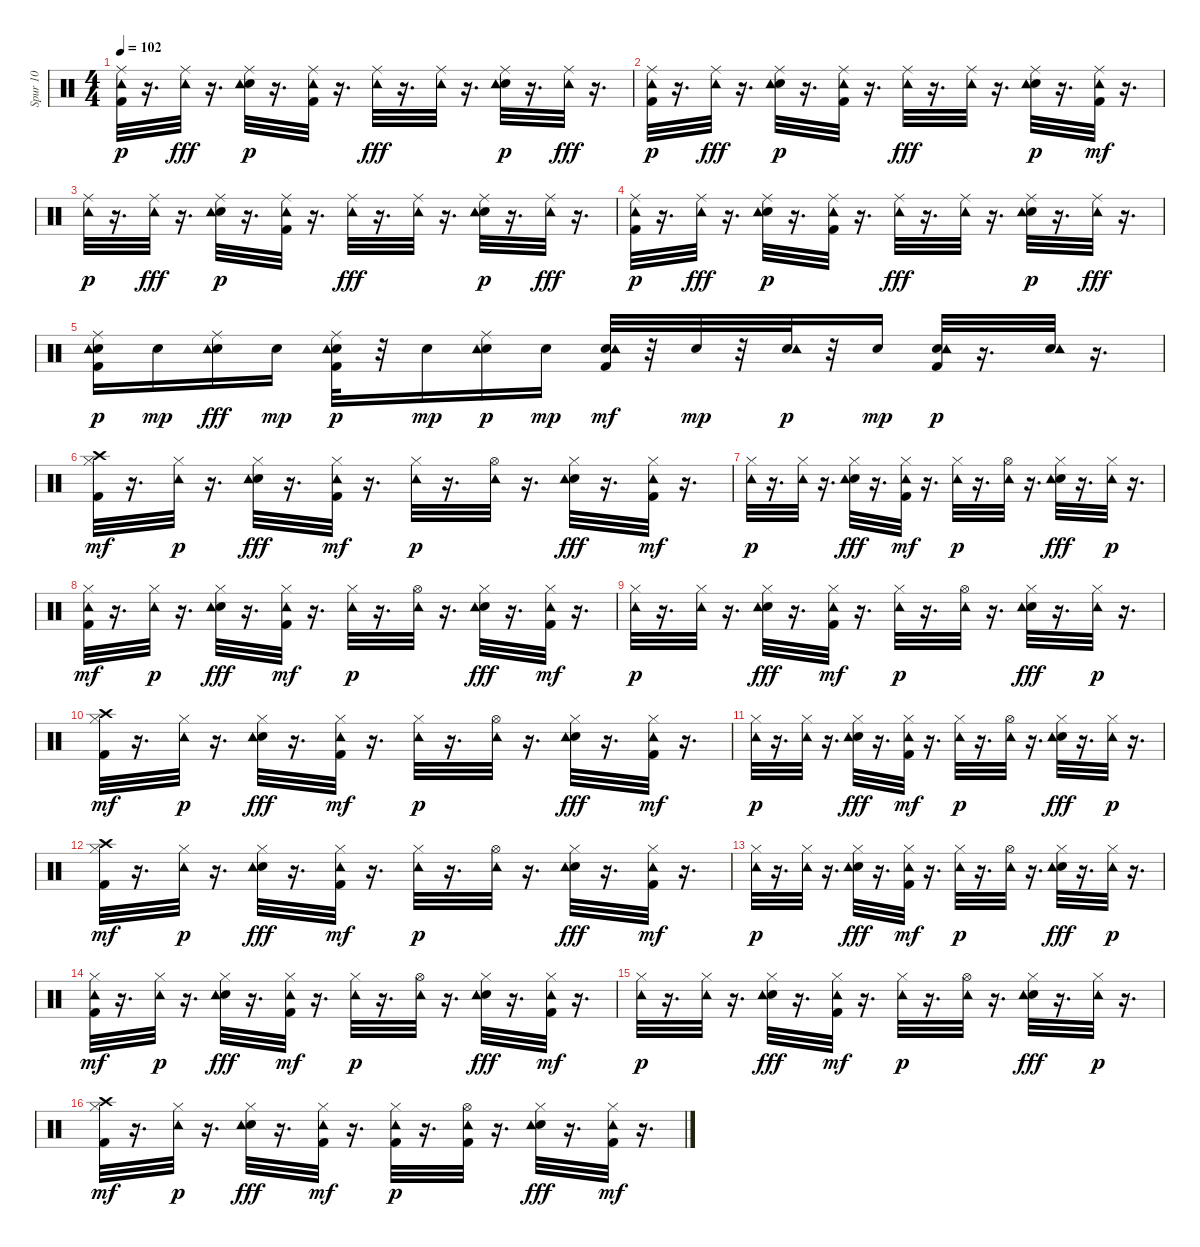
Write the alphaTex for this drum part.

\track ("Spur 10" "Spur 10") {instrument percussion}
\staff {score}
\articulation defaults
\ts (4 4)
\tempo 102
\clef neutral
\ks c
("Kick (hit) 2" "Ride (middle)" "Tambourine (hit)").32{dy p} r.16{d} ("Tambourine (hit)" "Ride (middle)").32{dy fff} r.16{d} ("Ride (middle)" "Electric Snare (hit)" "Tambourine (hit)").32{dy p} r.16{d} ("Kick (hit) 2" "Ride (middle)" "Tambourine (hit)").32 r.16{d} ("Tambourine (hit)" "Ride (middle)").32{dy fff} r.16{d} ("Tambourine (hit)" "Ride (middle)").32 r.16{d} ("Ride (middle)" "Electric Snare (hit)" "Tambourine (hit)").32{dy p} r.16{d} ("Tambourine (hit)" "Ride (middle)").32{dy fff} r.16{d} |
("Kick (hit) 2" "Ride (middle)" "Tambourine (hit)").32{dy p} r.16{d} ("Tambourine (hit)" "Ride (middle)").32{dy fff} r.16{d} ("Ride (middle)" "Electric Snare (hit)" "Tambourine (hit)").32{dy p} r.16{d} ("Kick (hit) 2" "Ride (middle)" "Tambourine (hit)").32 r.16{d} ("Tambourine (hit)" "Ride (middle)").32{dy fff} r.16{d} ("Tambourine (hit)" "Ride (middle)").32 r.16{d} ("Ride (middle)" "Electric Snare (hit)" "Tambourine (hit)").32{dy p} r.16{d} ("Tambourine (hit)" "Ride (middle)" "Kick (hit) 2").32{dy mf} r.16{d} |
("Ride (middle)" "Tambourine (hit)").32{dy p} r.16{d} ("Tambourine (hit)" "Ride (middle)").32{dy fff} r.16{d} ("Ride (middle)" "Electric Snare (hit)" "Tambourine (hit)").32{dy p} r.16{d} ("Kick (hit) 2" "Ride (middle)" "Tambourine (hit)").32 r.16{d} ("Tambourine (hit)" "Ride (middle)").32{dy fff} r.16{d} ("Tambourine (hit)" "Ride (middle)").32 r.16{d} ("Ride (middle)" "Electric Snare (hit)" "Tambourine (hit)").32{dy p} r.16{d} ("Tambourine (hit)" "Ride (middle)").32{dy fff} r.16{d} |
("Kick (hit) 2" "Ride (middle)" "Tambourine (hit)").32{dy p} r.16{d} ("Tambourine (hit)" "Ride (middle)").32{dy fff} r.16{d} ("Ride (middle)" "Electric Snare (hit)" "Tambourine (hit)").32{dy p} r.16{d} ("Kick (hit) 2" "Ride (middle)" "Tambourine (hit)").32 r.16{d} ("Tambourine (hit)" "Ride (middle)").32{dy fff} r.16{d} ("Tambourine (hit)" "Ride (middle)").32 r.16{d} ("Ride (middle)" "Electric Snare (hit)" "Tambourine (hit)").32{dy p} r.16{d} ("Tambourine (hit)" "Ride (middle)").32{dy fff} r.16{d} |
("Electric Snare (hit)" "Kick (hit) 2" "Ride (middle)" "Tambourine (hit)").16{dy p} "Electric Snare (hit)".16{dy mp} ("Electric Snare (hit)" "Tambourine (hit)" "Ride (middle)").16{dy fff} "Electric Snare (hit)".16{dy mp} ("Kick (hit) 2" "Ride (middle)" "Electric Snare (hit)" "Tambourine (hit)").32{dy p} r.32 "Electric Snare (hit)".16{dy mp} ("Electric Snare (hit)" "Ride (middle)" "Tambourine (hit)").16{dy p} "Electric Snare (hit)".16{dy mp} ("Electric Snare (hit)" "Tambourine (hit)" "Kick (hit) 2").32{dy mf} r.32 "Electric Snare (hit)".32{dy mp} r.32 ("Electric Snare (hit)" "Tambourine (hit)").32{dy p} r.32 "Electric Snare (hit)".16{dy mp} ("Electric Snare (hit)" "Kick (hit) 2" "Tambourine (hit)").32{dy p} r.16{d} ("Electric Snare (hit)" "Tambourine (hit)").32 r.16{d} |
("Hi-Hat (closed)" "Crash high (hit)" "Kick (hit) 2").32{dy mf} r.16{d} ("Hi-Hat (closed)" "Tambourine (hit)").32{dy p} r.16{d} ("Electric Snare (hit)" "Tambourine (hit)" "Hi-Hat (closed)").32{dy fff} r.16{d} ("Hi-Hat (closed)" "Tambourine (hit)" "Kick (hit) 2").32{dy mf} r.16{d} ("Hi-Hat (closed)" "Tambourine (hit)").32{dy p} r.16{d} ("Hi-Hat (open)" "Tambourine (hit)").32 r.16{d} ("Electric Snare (hit)" "Tambourine (hit)" "Hi-Hat (closed)").32{dy fff} r.16{d} ("Hi-Hat (closed)" "Tambourine (hit)" "Kick (hit) 2").32{dy mf} r.16{d} |
("Hi-Hat (closed)" "Tambourine (hit)").32{dy p} r.16{d} ("Hi-Hat (closed)" "Tambourine (hit)").32 r.16{d} ("Electric Snare (hit)" "Tambourine (hit)" "Hi-Hat (closed)").32{dy fff} r.16{d} ("Hi-Hat (closed)" "Tambourine (hit)" "Kick (hit) 2").32{dy mf} r.16{d} ("Hi-Hat (closed)" "Tambourine (hit)").32{dy p} r.16{d} ("Hi-Hat (open)" "Tambourine (hit)").32 r.16{d} ("Electric Snare (hit)" "Tambourine (hit)" "Hi-Hat (closed)").32{dy fff} r.16{d} ("Hi-Hat (closed)" "Tambourine (hit)").32{dy p} r.16{d} |
("Hi-Hat (closed)" "Tambourine (hit)" "Kick (hit) 2").32{dy mf} r.16{d} ("Hi-Hat (closed)" "Tambourine (hit)").32{dy p} r.16{d} ("Electric Snare (hit)" "Tambourine (hit)" "Hi-Hat (closed)").32{dy fff} r.16{d} ("Hi-Hat (closed)" "Tambourine (hit)" "Kick (hit) 2").32{dy mf} r.16{d} ("Hi-Hat (closed)" "Tambourine (hit)").32{dy p} r.16{d} ("Hi-Hat (open)" "Tambourine (hit)").32 r.16{d} ("Electric Snare (hit)" "Tambourine (hit)" "Hi-Hat (closed)").32{dy fff} r.16{d} ("Hi-Hat (closed)" "Tambourine (hit)" "Kick (hit) 2").32{dy mf} r.16{d} |
("Hi-Hat (closed)" "Tambourine (hit)").32{dy p} r.16{d} ("Hi-Hat (closed)" "Tambourine (hit)").32 r.16{d} ("Electric Snare (hit)" "Tambourine (hit)" "Hi-Hat (closed)").32{dy fff} r.16{d} ("Hi-Hat (closed)" "Tambourine (hit)" "Kick (hit) 2").32{dy mf} r.16{d} ("Hi-Hat (closed)" "Tambourine (hit)").32{dy p} r.16{d} ("Hi-Hat (open)" "Tambourine (hit)").32 r.16{d} ("Electric Snare (hit)" "Tambourine (hit)" "Hi-Hat (closed)").32{dy fff} r.16{d} ("Hi-Hat (closed)" "Tambourine (hit)").32{dy p} r.16{d} |
("Hi-Hat (closed)" "Crash high (hit)" "Kick (hit) 2").32{dy mf} r.16{d} ("Hi-Hat (closed)" "Tambourine (hit)").32{dy p} r.16{d} ("Electric Snare (hit)" "Tambourine (hit)" "Hi-Hat (closed)").32{dy fff} r.16{d} ("Hi-Hat (closed)" "Tambourine (hit)" "Kick (hit) 2").32{dy mf} r.16{d} ("Hi-Hat (closed)" "Tambourine (hit)").32{dy p} r.16{d} ("Hi-Hat (open)" "Tambourine (hit)").32 r.16{d} ("Electric Snare (hit)" "Tambourine (hit)" "Hi-Hat (closed)").32{dy fff} r.16{d} ("Hi-Hat (closed)" "Tambourine (hit)" "Kick (hit) 2").32{dy mf} r.16{d} |
("Hi-Hat (closed)" "Tambourine (hit)").32{dy p} r.16{d} ("Hi-Hat (closed)" "Tambourine (hit)").32 r.16{d} ("Electric Snare (hit)" "Tambourine (hit)" "Hi-Hat (closed)").32{dy fff} r.16{d} ("Hi-Hat (closed)" "Tambourine (hit)" "Kick (hit) 2").32{dy mf} r.16{d} ("Hi-Hat (closed)" "Tambourine (hit)").32{dy p} r.16{d} ("Hi-Hat (open)" "Tambourine (hit)").32 r.16{d} ("Electric Snare (hit)" "Tambourine (hit)" "Hi-Hat (closed)").32{dy fff} r.16{d} ("Hi-Hat (closed)" "Tambourine (hit)").32{dy p} r.16{d} |
("Hi-Hat (closed)" "Crash high (hit)" "Kick (hit) 2").32{dy mf} r.16{d} ("Hi-Hat (closed)" "Tambourine (hit)").32{dy p} r.16{d} ("Electric Snare (hit)" "Tambourine (hit)" "Hi-Hat (closed)").32{dy fff} r.16{d} ("Hi-Hat (closed)" "Tambourine (hit)" "Kick (hit) 2").32{dy mf} r.16{d} ("Hi-Hat (closed)" "Tambourine (hit)").32{dy p} r.16{d} ("Hi-Hat (open)" "Tambourine (hit)").32 r.16{d} ("Electric Snare (hit)" "Tambourine (hit)" "Hi-Hat (closed)").32{dy fff} r.16{d} ("Hi-Hat (closed)" "Tambourine (hit)" "Kick (hit) 2").32{dy mf} r.16{d} |
("Hi-Hat (closed)" "Tambourine (hit)").32{dy p} r.16{d} ("Hi-Hat (closed)" "Tambourine (hit)").32 r.16{d} ("Electric Snare (hit)" "Tambourine (hit)" "Hi-Hat (closed)").32{dy fff} r.16{d} ("Hi-Hat (closed)" "Tambourine (hit)" "Kick (hit) 2").32{dy mf} r.16{d} ("Hi-Hat (closed)" "Tambourine (hit)").32{dy p} r.16{d} ("Hi-Hat (open)" "Tambourine (hit)").32 r.16{d} ("Electric Snare (hit)" "Tambourine (hit)" "Hi-Hat (closed)").32{dy fff} r.16{d} ("Hi-Hat (closed)" "Tambourine (hit)").32{dy p} r.16{d} |
("Hi-Hat (closed)" "Tambourine (hit)" "Kick (hit) 2").32{dy mf} r.16{d} ("Hi-Hat (closed)" "Tambourine (hit)").32{dy p} r.16{d} ("Electric Snare (hit)" "Tambourine (hit)" "Hi-Hat (closed)").32{dy fff} r.16{d} ("Hi-Hat (closed)" "Tambourine (hit)" "Kick (hit) 2").32{dy mf} r.16{d} ("Hi-Hat (closed)" "Tambourine (hit)").32{dy p} r.16{d} ("Hi-Hat (open)" "Tambourine (hit)").32 r.16{d} ("Electric Snare (hit)" "Tambourine (hit)" "Hi-Hat (closed)").32{dy fff} r.16{d} ("Hi-Hat (closed)" "Tambourine (hit)" "Kick (hit) 2").32{dy mf} r.16{d} |
("Hi-Hat (closed)" "Tambourine (hit)").32{dy p} r.16{d} ("Hi-Hat (closed)" "Tambourine (hit)").32 r.16{d} ("Electric Snare (hit)" "Tambourine (hit)" "Hi-Hat (closed)").32{dy fff} r.16{d} ("Hi-Hat (closed)" "Tambourine (hit)" "Kick (hit) 2").32{dy mf} r.16{d} ("Hi-Hat (closed)" "Tambourine (hit)").32{dy p} r.16{d} ("Hi-Hat (open)" "Tambourine (hit)").32 r.16{d} ("Electric Snare (hit)" "Tambourine (hit)" "Hi-Hat (closed)").32{dy fff} r.16{d} ("Hi-Hat (closed)" "Tambourine (hit)").32{dy p} r.16{d} |
("Hi-Hat (closed)" "Crash high (hit)" "Kick (hit) 2").32{dy mf} r.16{d} ("Hi-Hat (closed)" "Tambourine (hit)").32{dy p} r.16{d} ("Electric Snare (hit)" "Tambourine (hit)" "Hi-Hat (closed)").32{dy fff} r.16{d} ("Hi-Hat (closed)" "Tambourine (hit)" "Kick (hit) 2").32{dy mf} r.16{d} ("Kick (hit) 2" "Hi-Hat (closed)" "Tambourine (hit)").32{dy p} r.16{d} ("Kick (hit) 2" "Hi-Hat (open)" "Tambourine (hit)").32 r.16{d} ("Electric Snare (hit)" "Tambourine (hit)" "Hi-Hat (closed)").32{dy fff} r.16{d} ("Hi-Hat (closed)" "Tambourine (hit)" "Kick (hit) 2").32{dy mf} r.16{d}
